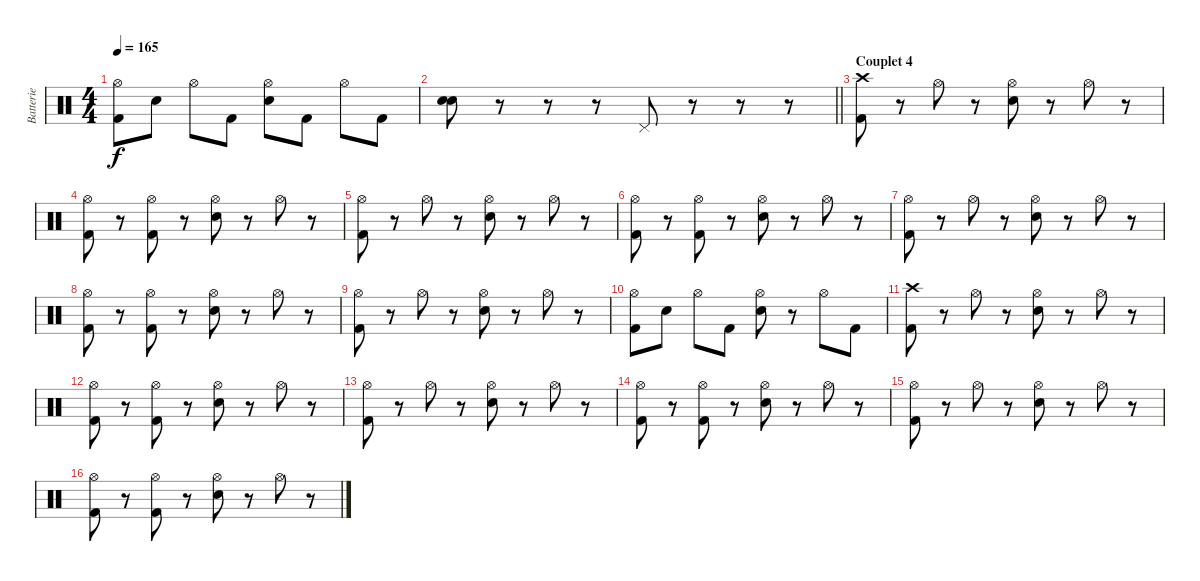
\track ("Batterie" "Batterie") {instrument percussion}
\staff {score}
\articulation defaults
\ts (4 4)
\tempo 165
\clef neutral
\ks c
("Hi-Hat (open)" "Kick (hit) 2").8{dy f} "Electric Snare (hit)".8 "Hi-Hat (open)".8 "Kick (hit) 2".8 ("Hi-Hat (open)" "Electric Snare (hit)").8 "Kick (hit) 2".8 "Hi-Hat (open)".8 "Kick (hit) 2".8 |
\barLineRight lightlight
("Electric Snare (hit)" "Electric Snare (hit)").8{bu 120} r.8 r.8 r.8 "Pedal Hi-Hat (hit)".8 r.8 r.8 r.8 |
\section ("" "Couplet 4")
("Crash high (hit)" "Kick (hit) 2").8 r.8 "Hi-Hat (open)".8 r.8 ("Hi-Hat (open)" "Electric Snare (hit)").8 r.8 "Hi-Hat (open)".8 r.8 |
("Hi-Hat (open)" "Kick (hit) 2").8 r.8 ("Hi-Hat (open)" "Kick (hit) 2").8 r.8 ("Hi-Hat (open)" "Electric Snare (hit)").8 r.8 "Hi-Hat (open)".8 r.8 |
("Hi-Hat (open)" "Kick (hit) 2").8 r.8 "Hi-Hat (open)".8 r.8 ("Hi-Hat (open)" "Electric Snare (hit)").8 r.8 "Hi-Hat (open)".8 r.8 |
("Hi-Hat (open)" "Kick (hit) 2").8 r.8 ("Hi-Hat (open)" "Kick (hit) 2").8 r.8 ("Hi-Hat (open)" "Electric Snare (hit)").8 r.8 "Hi-Hat (open)".8 r.8 |
("Hi-Hat (open)" "Kick (hit) 2").8 r.8 "Hi-Hat (open)".8 r.8 ("Hi-Hat (open)" "Electric Snare (hit)").8 r.8 "Hi-Hat (open)".8 r.8 |
("Hi-Hat (open)" "Kick (hit) 2").8 r.8 ("Hi-Hat (open)" "Kick (hit) 2").8 r.8 ("Hi-Hat (open)" "Electric Snare (hit)").8 r.8 "Hi-Hat (open)".8 r.8 |
("Hi-Hat (open)" "Kick (hit) 2").8 r.8 "Hi-Hat (open)".8 r.8 ("Hi-Hat (open)" "Electric Snare (hit)").8 r.8 "Hi-Hat (open)".8 r.8 |
("Hi-Hat (open)" "Kick (hit) 2").8 "Electric Snare (hit)".8 "Hi-Hat (open)".8 "Kick (hit) 2".8 ("Hi-Hat (open)" "Electric Snare (hit)").8 r.8 "Hi-Hat (open)".8 "Kick (hit) 2".8 |
("Crash high (hit)" "Kick (hit) 2").8 r.8 "Hi-Hat (open)".8 r.8 ("Hi-Hat (open)" "Electric Snare (hit)").8 r.8 "Hi-Hat (open)".8 r.8 |
("Hi-Hat (open)" "Kick (hit) 2").8 r.8 ("Hi-Hat (open)" "Kick (hit) 2").8 r.8 ("Hi-Hat (open)" "Electric Snare (hit)").8 r.8 "Hi-Hat (open)".8 r.8 |
("Hi-Hat (open)" "Kick (hit) 2").8 r.8 "Hi-Hat (open)".8 r.8 ("Hi-Hat (open)" "Electric Snare (hit)").8 r.8 "Hi-Hat (open)".8 r.8 |
("Hi-Hat (open)" "Kick (hit) 2").8 r.8 ("Hi-Hat (open)" "Kick (hit) 2").8 r.8 ("Hi-Hat (open)" "Electric Snare (hit)").8 r.8 "Hi-Hat (open)".8 r.8 |
("Hi-Hat (open)" "Kick (hit) 2").8 r.8 "Hi-Hat (open)".8 r.8 ("Hi-Hat (open)" "Electric Snare (hit)").8 r.8 "Hi-Hat (open)".8 r.8 |
("Hi-Hat (open)" "Kick (hit) 2").8 r.8 ("Hi-Hat (open)" "Kick (hit) 2").8 r.8 ("Hi-Hat (open)" "Electric Snare (hit)").8 r.8 "Hi-Hat (open)".8 r.8
